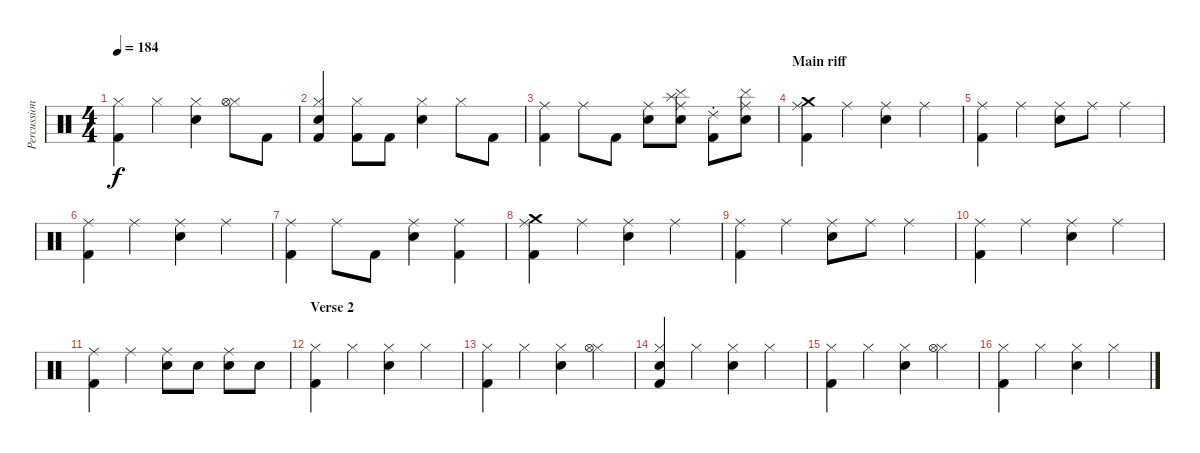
\track ("Percussion" "Percussion") {instrument percussion}
\staff {score}
\articulation defaults
\ts (4 4)
\tempo 184
\clef neutral
\ks c
("Kick (hit) 2" "Hi-Hat (closed)").4{dy f} "Hi-Hat (closed)".4 ("Snare (hit) 2" "Hi-Hat (closed)").4 ("Hi-Hat (closed)" "Hi-Hat (open)").8 "Kick (hit) 2".8 |
("Kick (hit) 2" "Hi-Hat (closed)" "Snare (hit)").4 ("Kick (hit) 2" "Hi-Hat (closed)").8 "Kick (hit) 2".8 ("Snare (hit) 2" "Hi-Hat (closed)").4 "Hi-Hat (closed)".8 "Kick (hit) 2".8 |
("Kick (hit) 2" "Ride (middle)").4 "Ride (middle)".8 "Kick (hit) 2".8 ("Snare (hit) 2" "Ride (middle)").8 ("Snare (hit) 2" "Ride (middle)" "Splash (hit)" "Cymbal (hit)").8 ("Kick (hit) 2" "Ride (choke) 2").8 ("Snare (hit) 2" "Ride (middle)" "Cymbal (hit)").8 |
\section ("" "Main riff")
("Kick (hit) 2" "Crash medium (hit)" "Ride (middle)").4 "Ride (middle)".4 ("Snare (hit) 2" "Ride (middle)").4 "Ride (middle)".4 |
("Kick (hit) 2" "Ride (middle)").4 "Ride (middle)".4 ("Snare (hit) 2" "Ride (middle)").8 "Ride (middle)".8 "Ride (middle)".4 |
("Kick (hit) 2" "Ride (middle)").4 "Ride (middle)".4 ("Snare (hit) 2" "Ride (middle)").4 "Ride (middle)".4 |
("Kick (hit) 2" "Ride (middle)").4 "Ride (middle)".8 "Kick (hit) 2".8 ("Snare (hit) 2" "Ride (middle)").4 ("Kick (hit) 2" "Ride (middle)").4 |
("Kick (hit) 2" "Crash medium (hit)" "Ride (middle)").4 "Ride (middle)".4 ("Snare (hit) 2" "Ride (middle)").4 "Ride (middle)".4 |
("Kick (hit) 2" "Ride (middle)").4 "Ride (middle)".4 ("Snare (hit) 2" "Ride (middle)").8 "Ride (middle)".8 "Ride (middle)".4 |
("Kick (hit) 2" "Ride (middle)").4 "Ride (middle)".4 ("Snare (hit) 2" "Ride (middle)").4 "Ride (middle)".4 |
("Kick (hit) 2" "Ride (middle)").4 "Ride (middle)".4 ("Snare (hit) 2" "Ride (middle)").8 "Snare (hit) 2".8 ("Snare (hit) 2" "Ride (middle)").8 "Snare (hit) 2".8 |
\section ("" "Verse 2")
("Kick (hit) 2" "Hi-Hat (closed)").4 "Hi-Hat (closed)".4 ("Snare (hit) 2" "Hi-Hat (closed)").4 "Hi-Hat (closed)".4 |
("Kick (hit) 2" "Hi-Hat (closed)").4 "Hi-Hat (closed)".4 ("Snare (hit) 2" "Hi-Hat (closed)").4 ("Hi-Hat (closed)" "Hi-Hat (open)").4 |
("Kick (hit) 2" "Hi-Hat (closed)" "Snare (hit)").4 "Hi-Hat (closed)".4 ("Snare (hit) 2" "Hi-Hat (closed)").4 "Hi-Hat (closed)".4 |
("Kick (hit) 2" "Hi-Hat (closed)").4 "Hi-Hat (closed)".4 ("Snare (hit) 2" "Hi-Hat (closed)").4 ("Hi-Hat (closed)" "Hi-Hat (open)").4 |
("Kick (hit) 2" "Hi-Hat (closed)").4 "Hi-Hat (closed)".4 ("Snare (hit) 2" "Hi-Hat (closed)").4 "Hi-Hat (closed)".4
